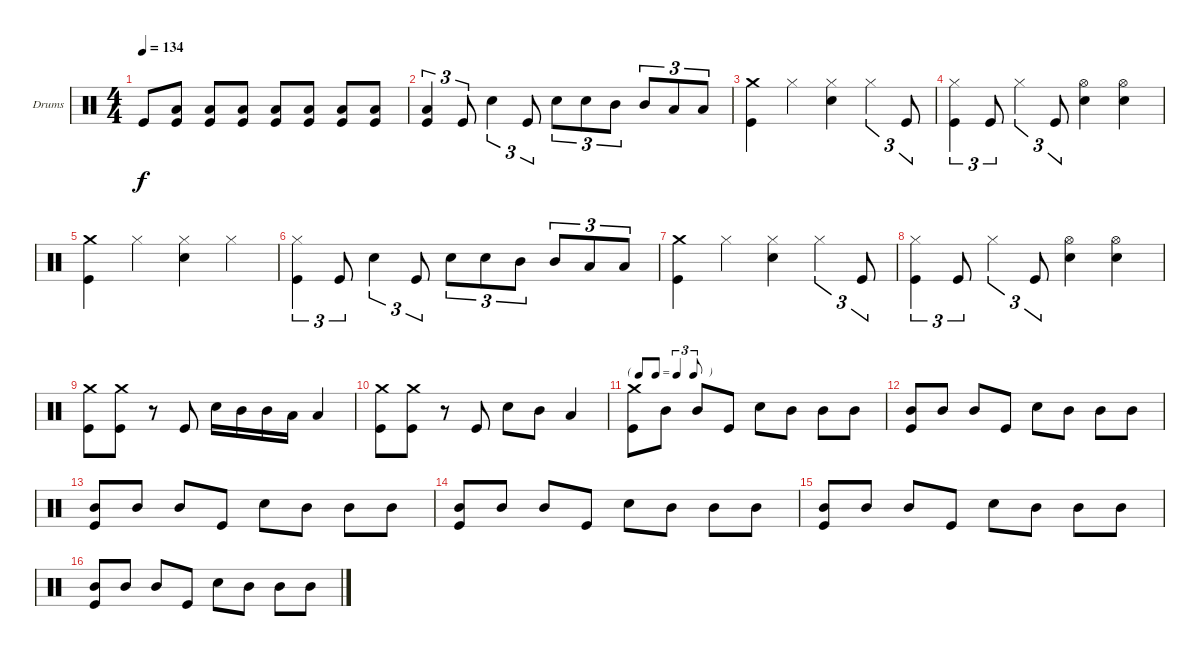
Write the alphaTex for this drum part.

\defaultSystemsLayout 4
\bracketExtendMode groupsimilarinstruments
\firstSystemTrackNameOrientation horizontal
\otherSystemsTrackNameOrientation horizontal
\track ("Drumkit" "Drums") {instrument percussion}
\staff {score}
\articulation defaults
\ts (4 4)
\tempo 134
\clef neutral
\ks c "Kick (hit)".8{dy f}
("Kick (hit)" "Low Tom (hit)").8 ("Kick (hit)" "Low Tom (hit)").8 ("Kick (hit)" "Low Tom (hit)").8 ("Kick (hit)" "Low Tom (hit)").8 ("Kick (hit)" "Low Tom (hit)").8 ("Kick (hit)" "Low Tom (hit)").8 ("Kick (hit)" "Low Tom (hit)").8 |
("Kick (hit)" "Low Tom (hit)").4{tu (3 2)} "Kick (hit)".8{tu (3 2)} "Snare (hit) 2".4{tu (3 2)} "Kick (hit)".8{tu (3 2)} "Snare (hit) 2".8{tu (3 2)} "Snare (hit) 2".8{tu (3 2)} "Mid Tom (hit)".8{tu (3 2)} "Mid Tom (hit)".8{tu (3 2)} "Low Tom (hit)".8{tu (3 2)} "Low Tom (hit)".8{tu (3 2)} |
("Kick (hit)" "Crash medium (hit)").4 "Hi-Hat (closed)".4 ("Snare (hit) 2" "Hi-Hat (closed)").4 "Hi-Hat (closed)".4{tu (3 2)} "Kick (hit)".8{tu (3 2)} |
("Kick (hit)" "Hi-Hat (closed)").4{tu (3 2)} "Kick (hit)".8{tu (3 2)} "Hi-Hat (closed)".4{tu (3 2)} "Kick (hit)".8{tu (3 2)} ("Snare (hit) 2" "Hi-Hat (open)").4 ("Hi-Hat (open)" "Snare (hit) 2").4 |
("Kick (hit)" "Crash medium (hit)").4 "Hi-Hat (closed)".4 ("Hi-Hat (closed)" "Snare (hit) 2").4 "Hi-Hat (closed)".4 |
("Kick (hit)" "Hi-Hat (closed)").4{tu (3 2)} "Kick (hit)".8{tu (3 2)} "Snare (hit) 2".4{tu (3 2)} "Kick (hit)".8{tu (3 2)} "Snare (hit) 2".8{tu (3 2)} "Snare (hit) 2".8{tu (3 2)} "Mid Tom (hit)".8{tu (3 2)} "Mid Tom (hit)".8{tu (3 2)} "Low Tom (hit)".8{tu (3 2)} "Low Tom (hit)".8{tu (3 2)} |
("Kick (hit)" "Crash medium (hit)").4 "Hi-Hat (closed)".4 ("Snare (hit) 2" "Hi-Hat (closed)").4 "Hi-Hat (closed)".4{tu (3 2)} "Kick (hit)".8{tu (3 2)} |
("Kick (hit)" "Hi-Hat (closed)").4{tu (3 2)} "Kick (hit)".8{tu (3 2)} "Hi-Hat (closed)".4{tu (3 2)} "Kick (hit)".8{tu (3 2)} ("Snare (hit) 2" "Hi-Hat (open)").4 ("Hi-Hat (open)" "Snare (hit) 2").4 |
("Kick (hit)" "Crash medium (hit)").8 ("Kick (hit)" "Crash medium (hit)").8 r.8 "Kick (hit)".8 "Snare (hit) 2".16 "Mid Tom (hit)".16 "Mid Tom (hit)".16 "Low Tom (hit)".16 "Low Tom (hit)".4 |
("Kick (hit)" "Crash medium (hit)").8 ("Kick (hit)" "Crash medium (hit)").8 r.8 "Kick (hit)".8 "Snare (hit) 2".8 "Mid Tom (hit)".8 "Low Tom (hit)".4 |
\tf triplet8th
("Kick (hit)" "Crash medium (hit)").8 "Mid Tom (hit)".8 "Mid Tom (hit)".8 "Kick (hit)".8 "Snare (hit) 2".8 "Mid Tom (hit)".8 "Mid Tom (hit)".8 "Mid Tom (hit)".8 |
("Kick (hit)" "Mid Tom (hit)").8 "Mid Tom (hit)".8 "Mid Tom (hit)".8 "Kick (hit)".8 "Snare (hit) 2".8 "Mid Tom (hit)".8 "Mid Tom (hit)".8 "Mid Tom (hit)".8 |
("Kick (hit)" "Mid Tom (hit)").8 "Mid Tom (hit)".8 "Mid Tom (hit)".8 "Kick (hit)".8 "Snare (hit) 2".8 "Mid Tom (hit)".8 "Mid Tom (hit)".8 "Mid Tom (hit)".8 |
("Kick (hit)" "Mid Tom (hit)").8 "Mid Tom (hit)".8 "Mid Tom (hit)".8 "Kick (hit)".8 "Snare (hit) 2".8 "Mid Tom (hit)".8 "Mid Tom (hit)".8 "Mid Tom (hit)".8 |
("Kick (hit)" "Mid Tom (hit)").8 "Mid Tom (hit)".8 "Mid Tom (hit)".8 "Kick (hit)".8 "Snare (hit) 2".8 "Mid Tom (hit)".8 "Mid Tom (hit)".8 "Mid Tom (hit)".8 |
("Kick (hit)" "Mid Tom (hit)").8 "Mid Tom (hit)".8 "Mid Tom (hit)".8 "Kick (hit)".8 "Snare (hit) 2".8 "Mid Tom (hit)".8 "Mid Tom (hit)".8 "Mid Tom (hit)".8
